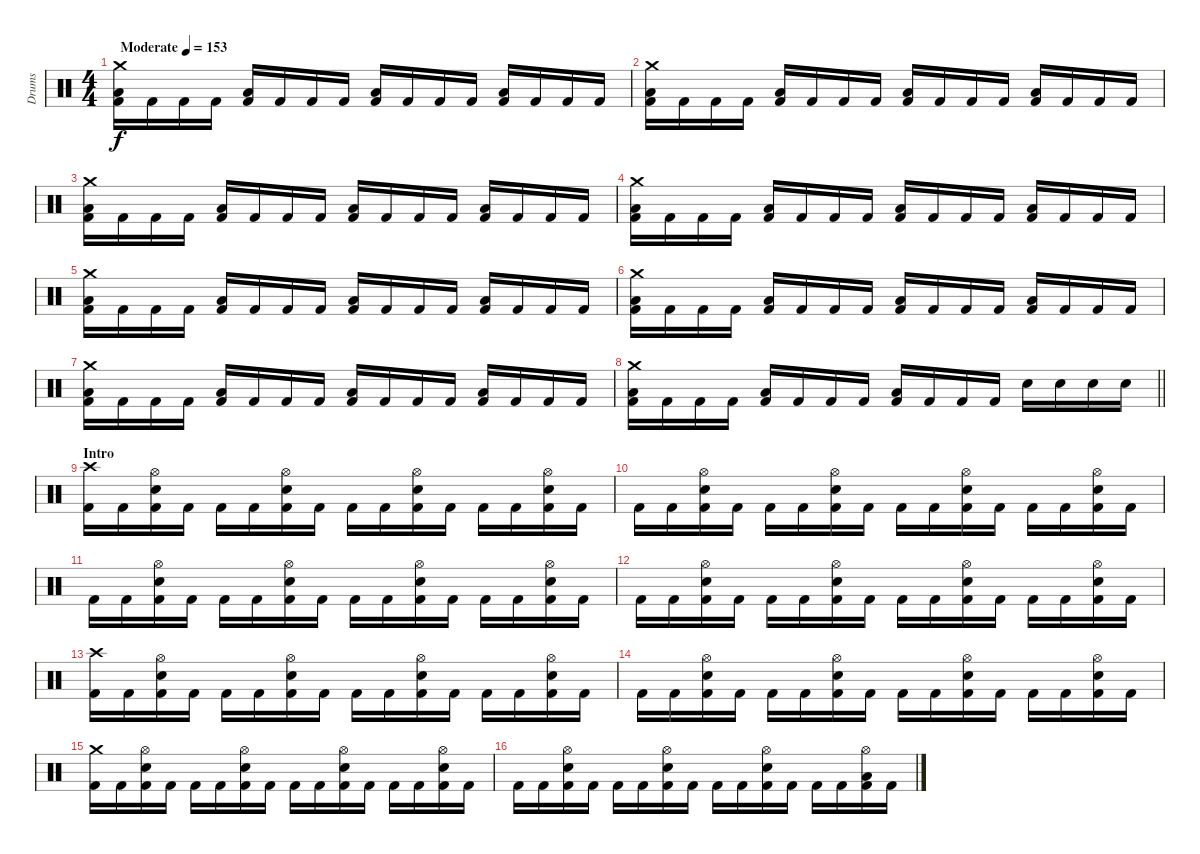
\track ("Drums" "Drums") {instrument percussion}
\staff {score}
\articulation defaults
\ts (4 4)
\tempo (153 "Moderate")
\clef neutral
\ks c
("Crash medium (hit)" "Low Tom (hit)" "Kick (hit) 2").16{dy f} "Kick (hit) 2".16 "Kick (hit) 2".16 "Kick (hit) 2".16 ("Low Tom (hit)" "Kick (hit) 2").16 "Kick (hit) 2".16 "Kick (hit) 2".16 "Kick (hit) 2".16 ("Low Tom (hit)" "Kick (hit) 2").16 "Kick (hit) 2".16 "Kick (hit) 2".16 "Kick (hit) 2".16 ("Low Tom (hit)" "Kick (hit) 2").16 "Kick (hit) 2".16 "Kick (hit) 2".16 "Kick (hit) 2".16 |
("Crash medium (hit)" "Low Tom (hit)" "Kick (hit) 2").16 "Kick (hit) 2".16 "Kick (hit) 2".16 "Kick (hit) 2".16 ("Low Tom (hit)" "Kick (hit) 2").16 "Kick (hit) 2".16 "Kick (hit) 2".16 "Kick (hit) 2".16 ("Low Tom (hit)" "Kick (hit) 2").16 "Kick (hit) 2".16 "Kick (hit) 2".16 "Kick (hit) 2".16 ("Low Tom (hit)" "Kick (hit) 2").16 "Kick (hit) 2".16 "Kick (hit) 2".16 "Kick (hit) 2".16 |
("Crash medium (hit)" "Low Tom (hit)" "Kick (hit) 2").16 "Kick (hit) 2".16 "Kick (hit) 2".16 "Kick (hit) 2".16 ("Low Tom (hit)" "Kick (hit) 2").16 "Kick (hit) 2".16 "Kick (hit) 2".16 "Kick (hit) 2".16 ("Low Tom (hit)" "Kick (hit) 2").16 "Kick (hit) 2".16 "Kick (hit) 2".16 "Kick (hit) 2".16 ("Low Tom (hit)" "Kick (hit) 2").16 "Kick (hit) 2".16 "Kick (hit) 2".16 "Kick (hit) 2".16 |
("Crash medium (hit)" "Low Tom (hit)" "Kick (hit) 2").16 "Kick (hit) 2".16 "Kick (hit) 2".16 "Kick (hit) 2".16 ("Low Tom (hit)" "Kick (hit) 2").16 "Kick (hit) 2".16 "Kick (hit) 2".16 "Kick (hit) 2".16 ("Low Tom (hit)" "Kick (hit) 2").16 "Kick (hit) 2".16 "Kick (hit) 2".16 "Kick (hit) 2".16 ("Low Tom (hit)" "Kick (hit) 2").16 "Kick (hit) 2".16 "Kick (hit) 2".16 "Kick (hit) 2".16 |
("Crash medium (hit)" "Low Tom (hit)" "Kick (hit) 2").16 "Kick (hit) 2".16 "Kick (hit) 2".16 "Kick (hit) 2".16 ("Low Tom (hit)" "Kick (hit) 2").16 "Kick (hit) 2".16 "Kick (hit) 2".16 "Kick (hit) 2".16 ("Low Tom (hit)" "Kick (hit) 2").16 "Kick (hit) 2".16 "Kick (hit) 2".16 "Kick (hit) 2".16 ("Low Tom (hit)" "Kick (hit) 2").16 "Kick (hit) 2".16 "Kick (hit) 2".16 "Kick (hit) 2".16 |
("Crash medium (hit)" "Low Tom (hit)" "Kick (hit) 2").16 "Kick (hit) 2".16 "Kick (hit) 2".16 "Kick (hit) 2".16 ("Low Tom (hit)" "Kick (hit) 2").16 "Kick (hit) 2".16 "Kick (hit) 2".16 "Kick (hit) 2".16 ("Low Tom (hit)" "Kick (hit) 2").16 "Kick (hit) 2".16 "Kick (hit) 2".16 "Kick (hit) 2".16 ("Low Tom (hit)" "Kick (hit) 2").16 "Kick (hit) 2".16 "Kick (hit) 2".16 "Kick (hit) 2".16 |
("Crash medium (hit)" "Low Tom (hit)" "Kick (hit) 2").16 "Kick (hit) 2".16 "Kick (hit) 2".16 "Kick (hit) 2".16 ("Low Tom (hit)" "Kick (hit) 2").16 "Kick (hit) 2".16 "Kick (hit) 2".16 "Kick (hit) 2".16 ("Low Tom (hit)" "Kick (hit) 2").16 "Kick (hit) 2".16 "Kick (hit) 2".16 "Kick (hit) 2".16 ("Low Tom (hit)" "Kick (hit) 2").16 "Kick (hit) 2".16 "Kick (hit) 2".16 "Kick (hit) 2".16 |
\barLineRight lightlight
("Crash medium (hit)" "Low Tom (hit)" "Kick (hit) 2").16 "Kick (hit) 2".16 "Kick (hit) 2".16 "Kick (hit) 2".16 ("Low Tom (hit)" "Kick (hit) 2").16 "Kick (hit) 2".16 "Kick (hit) 2".16 "Kick (hit) 2".16 ("Low Tom (hit)" "Kick (hit) 2").16 "Kick (hit) 2".16 "Kick (hit) 2".16 "Kick (hit) 2".16 "Snare (hit) 2".16 "Snare (hit) 2".16 "Snare (hit) 2".16 "Snare (hit) 2".16 |
\section ("" "Intro")
("Crash high (hit)" "Kick (hit) 2").16 "Kick (hit) 2".16 ("Hi-Hat (open)" "Snare (hit) 2" "Kick (hit) 2").16 "Kick (hit) 2".16 "Kick (hit) 2".16 "Kick (hit) 2".16 ("Hi-Hat (open)" "Snare (hit) 2" "Kick (hit) 2").16 "Kick (hit) 2".16 "Kick (hit) 2".16 "Kick (hit) 2".16 ("Hi-Hat (open)" "Snare (hit) 2" "Kick (hit) 2").16 "Kick (hit) 2".16 "Kick (hit) 2".16 "Kick (hit) 2".16 ("Hi-Hat (open)" "Snare (hit) 2" "Kick (hit) 2").16 "Kick (hit) 2".16 |
"Kick (hit) 2".16 "Kick (hit) 2".16 ("Hi-Hat (open)" "Snare (hit) 2" "Kick (hit) 2").16 "Kick (hit) 2".16 "Kick (hit) 2".16 "Kick (hit) 2".16 ("Hi-Hat (open)" "Snare (hit) 2" "Kick (hit) 2").16 "Kick (hit) 2".16 "Kick (hit) 2".16 "Kick (hit) 2".16 ("Hi-Hat (open)" "Snare (hit) 2" "Kick (hit) 2").16 "Kick (hit) 2".16 "Kick (hit) 2".16 "Kick (hit) 2".16 ("Hi-Hat (open)" "Snare (hit) 2" "Kick (hit) 2").16 "Kick (hit) 2".16 |
"Kick (hit) 2".16 "Kick (hit) 2".16 ("Hi-Hat (open)" "Snare (hit) 2" "Kick (hit) 2").16 "Kick (hit) 2".16 "Kick (hit) 2".16 "Kick (hit) 2".16 ("Hi-Hat (open)" "Snare (hit) 2" "Kick (hit) 2").16 "Kick (hit) 2".16 "Kick (hit) 2".16 "Kick (hit) 2".16 ("Hi-Hat (open)" "Snare (hit) 2" "Kick (hit) 2").16 "Kick (hit) 2".16 "Kick (hit) 2".16 "Kick (hit) 2".16 ("Hi-Hat (open)" "Snare (hit) 2" "Kick (hit) 2").16 "Kick (hit) 2".16 |
"Kick (hit) 2".16 "Kick (hit) 2".16 ("Hi-Hat (open)" "Snare (hit) 2" "Kick (hit) 2").16 "Kick (hit) 2".16 "Kick (hit) 2".16 "Kick (hit) 2".16 ("Hi-Hat (open)" "Snare (hit) 2" "Kick (hit) 2").16 "Kick (hit) 2".16 "Kick (hit) 2".16 "Kick (hit) 2".16 ("Hi-Hat (open)" "Snare (hit) 2" "Kick (hit) 2").16 "Kick (hit) 2".16 "Kick (hit) 2".16 "Kick (hit) 2".16 ("Hi-Hat (open)" "Snare (hit) 2" "Kick (hit) 2").16 "Kick (hit) 2".16 |
("Crash high (hit)" "Kick (hit) 2").16 "Kick (hit) 2".16 ("Hi-Hat (open)" "Snare (hit) 2" "Kick (hit) 2").16 "Kick (hit) 2".16 "Kick (hit) 2".16 "Kick (hit) 2".16 ("Hi-Hat (open)" "Snare (hit) 2" "Kick (hit) 2").16 "Kick (hit) 2".16 "Kick (hit) 2".16 "Kick (hit) 2".16 ("Hi-Hat (open)" "Snare (hit) 2" "Kick (hit) 2").16 "Kick (hit) 2".16 "Kick (hit) 2".16 "Kick (hit) 2".16 ("Hi-Hat (open)" "Snare (hit) 2" "Kick (hit) 2").16 "Kick (hit) 2".16 |
"Kick (hit) 2".16 "Kick (hit) 2".16 ("Hi-Hat (open)" "Snare (hit) 2" "Kick (hit) 2").16 "Kick (hit) 2".16 "Kick (hit) 2".16 "Kick (hit) 2".16 ("Hi-Hat (open)" "Snare (hit) 2" "Kick (hit) 2").16 "Kick (hit) 2".16 "Kick (hit) 2".16 "Kick (hit) 2".16 ("Hi-Hat (open)" "Snare (hit) 2" "Kick (hit) 2").16 "Kick (hit) 2".16 "Kick (hit) 2".16 "Kick (hit) 2".16 ("Hi-Hat (open)" "Snare (hit) 2" "Kick (hit) 2").16 "Kick (hit) 2".16 |
("Crash medium (hit)" "Kick (hit) 2").16 "Kick (hit) 2".16 ("Hi-Hat (open)" "Snare (hit) 2" "Kick (hit) 2").16 "Kick (hit) 2".16 "Kick (hit) 2".16 "Kick (hit) 2".16 ("Hi-Hat (open)" "Snare (hit) 2" "Kick (hit) 2").16 "Kick (hit) 2".16 "Kick (hit) 2".16 "Kick (hit) 2".16 ("Hi-Hat (open)" "Snare (hit) 2" "Kick (hit) 2").16 "Kick (hit) 2".16 "Kick (hit) 2".16 "Kick (hit) 2".16 ("Hi-Hat (open)" "Snare (hit) 2" "Kick (hit) 2").16 "Kick (hit) 2".16 |
"Kick (hit) 2".16 "Kick (hit) 2".16 ("Hi-Hat (open)" "Snare (hit) 2" "Kick (hit) 2").16 "Kick (hit) 2".16 "Kick (hit) 2".16 "Kick (hit) 2".16 ("Hi-Hat (open)" "Snare (hit) 2" "Kick (hit) 2").16 "Kick (hit) 2".16 "Kick (hit) 2".16 "Kick (hit) 2".16 ("Hi-Hat (open)" "Snare (hit) 2" "Kick (hit) 2").16 "Kick (hit) 2".16 "Kick (hit) 2".16 "Kick (hit) 2".16 ("Hi-Hat (open)" "Low Tom (hit)" "Kick (hit) 2").16 "Kick (hit) 2".16
